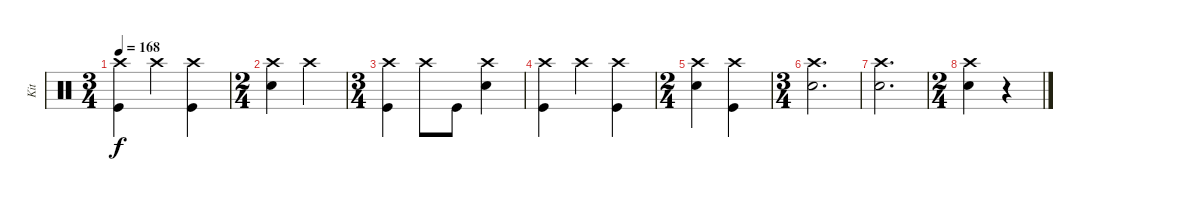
\track ("Kit" "Kit") {instrument percussion}
\staff {score}
\articulation defaults
\ts (3 4)
\tempo 168
\clef neutral
\ks c
("Crash high (hit)" "Kick (hit)").4{dy f} "Crash high (hit)".4 ("Crash high (hit)" "Kick (hit)").4 |
\ts (2 4)
("Crash high (hit)" "Electric Snare (hit)").4{beam merge} "Crash high (hit)".4 |
\ts (3 4)
("Crash high (hit)" "Kick (hit)").4{beam merge} "Crash high (hit)".8 "Kick (hit)".8 ("Crash high (hit)" "Electric Snare (hit)").4 |
("Crash high (hit)" "Kick (hit)").4 "Crash high (hit)".4 ("Crash high (hit)" "Kick (hit)").4 |
\ts (2 4)
("Crash high (hit)" "Electric Snare (hit)").4{beam merge} ("Crash high (hit)" "Kick (hit)").4 |
\ts (3 4)
("Crash high (hit)" "Electric Snare (hit)").2{d} |
("Crash high (hit)" "Electric Snare (hit)").2{d} |
\ts (2 4)
("Crash high (hit)" "Electric Snare (hit)").4 r.4
